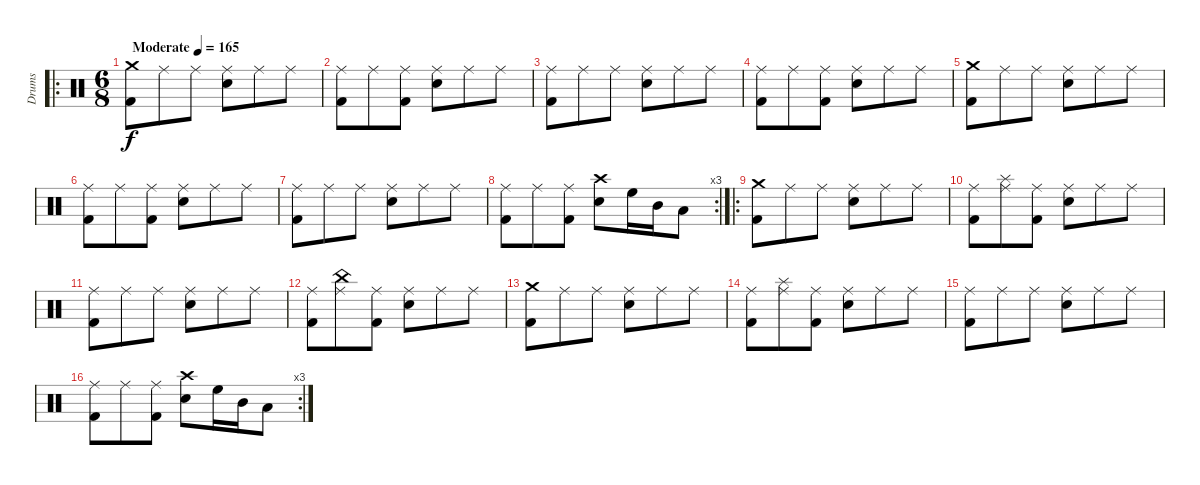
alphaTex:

\track ("Drums" "Drums") {instrument percussion}
\staff {score}
\articulation defaults
\ro
\ts (6 8)
\tempo (165 "Moderate")
\clef neutral
\ks c
("Crash medium (hit)" "Kick (hit) 2").8{dy f} "Ride (middle)".8 "Ride (middle)".8 ("Ride (middle)" "Snare (hit) 2").8 "Ride (middle)".8 "Ride (middle)".8 |
("Ride (middle)" "Kick (hit) 2").8 "Ride (middle)".8 ("Ride (middle)" "Kick (hit) 2").8 ("Ride (middle)" "Snare (hit) 2").8 "Ride (middle)".8 "Ride (middle)".8 |
("Ride (middle)" "Kick (hit) 2").8 "Ride (middle)".8 "Ride (middle)".8 ("Ride (middle)" "Snare (hit) 2").8 "Ride (middle)".8 "Ride (middle)".8 |
("Ride (middle)" "Kick (hit) 2").8 "Ride (middle)".8 ("Ride (middle)" "Kick (hit) 2").8 ("Ride (middle)" "Snare (hit) 2").8 "Ride (middle)".8 "Ride (middle)".8 |
("Crash medium (hit)" "Kick (hit) 2").8 "Ride (middle)".8 "Ride (middle)".8 ("Ride (middle)" "Snare (hit) 2").8 "Ride (middle)".8 "Ride (middle)".8 |
("Ride (middle)" "Kick (hit) 2").8 "Ride (middle)".8 ("Ride (middle)" "Kick (hit) 2").8 ("Ride (middle)" "Snare (hit) 2").8 "Ride (middle)".8 "Ride (middle)".8 |
("Ride (middle)" "Kick (hit) 2").8 "Ride (middle)".8 "Ride (middle)".8 ("Ride (middle)" "Snare (hit) 2").8 "Ride (middle)".8 "Ride (middle)".8 |
\rc 3
("Ride (middle)" "Kick (hit) 2").8 "Ride (middle)".8 ("Ride (middle)" "Kick (hit) 2").8 ("Crash high (hit)" "Snare (hit) 2").8 "High Floor Tom (hit)".16 "Mid Tom (hit)".16 "Low Tom (hit)".8 |
\ro
("Crash medium (hit)" "Kick (hit) 2").8 "Ride (middle)".8 "Ride (middle)".8 ("Ride (middle)" "Snare (hit) 2").8 "Ride (middle)".8 "Ride (middle)".8 |
("Ride (middle)" "Kick (hit) 2").8 ("Splash (hit)" "Ride (middle)").8 ("Ride (middle)" "Kick (hit) 2").8 ("Ride (middle)" "Snare (hit) 2").8 "Ride (middle)".8 "Ride (middle)".8 |
("Ride (middle)" "Kick (hit) 2").8 "Ride (middle)".8 "Ride (middle)".8 ("Ride (middle)" "Snare (hit) 2").8 "Ride (middle)".8 "Ride (middle)".8 |
("Ride (middle)" "Kick (hit) 2").8 ("China (hit)" "Ride (middle)").8 ("Ride (middle)" "Kick (hit) 2").8 ("Ride (middle)" "Snare (hit) 2").8 "Ride (middle)".8 "Ride (middle)".8 |
("Crash medium (hit)" "Kick (hit) 2").8 "Ride (middle)".8 "Ride (middle)".8 ("Ride (middle)" "Snare (hit) 2").8 "Ride (middle)".8 "Ride (middle)".8 |
("Ride (middle)" "Kick (hit) 2").8 ("Splash (hit)" "Ride (middle)").8 ("Ride (middle)" "Kick (hit) 2").8 ("Ride (middle)" "Snare (hit) 2").8 "Ride (middle)".8 "Ride (middle)".8 |
("Ride (middle)" "Kick (hit) 2").8 "Ride (middle)".8 "Ride (middle)".8 ("Ride (middle)" "Snare (hit) 2").8 "Ride (middle)".8 "Ride (middle)".8 |
\rc 3
("Ride (middle)" "Kick (hit) 2").8 "Ride (middle)".8 ("Ride (middle)" "Kick (hit) 2").8 ("Crash high (hit)" "Snare (hit) 2").8 "High Floor Tom (hit)".16 "Mid Tom (hit)".16 "Low Tom (hit)".8
